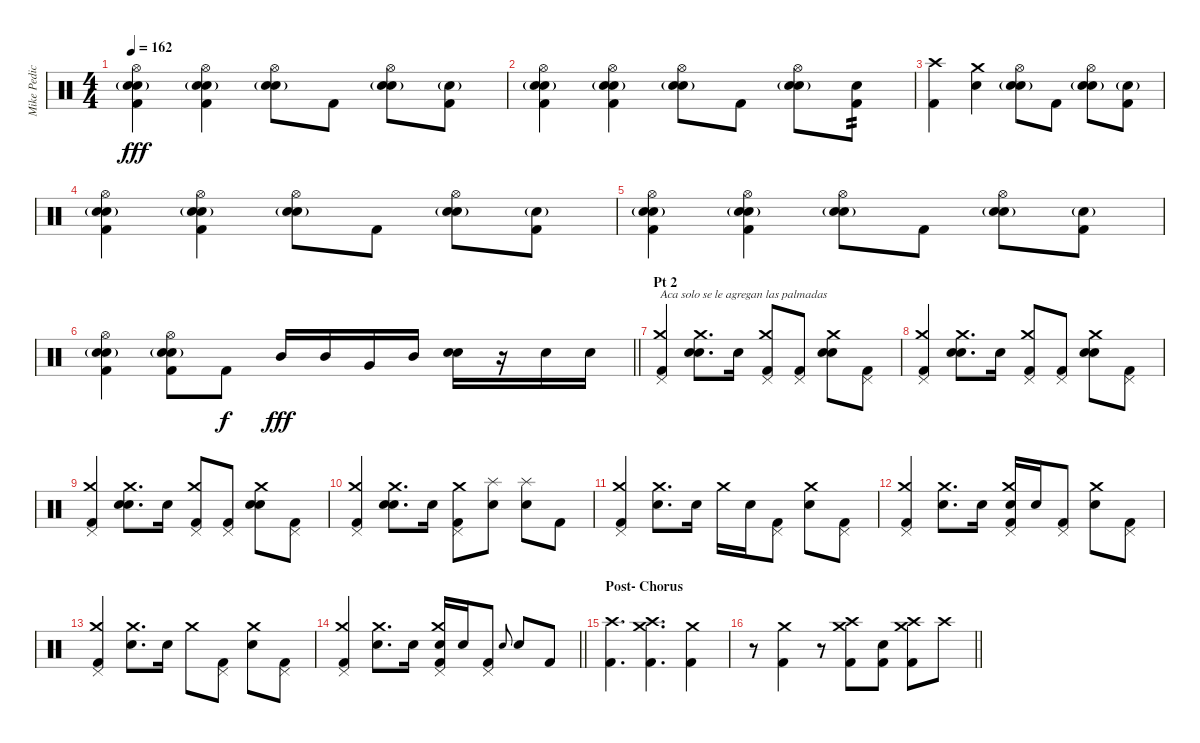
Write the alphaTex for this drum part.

\track ("Mike Pedicone [Drums]" "Mike Pedic") {instrument percussion}
\staff
\articulation defaults
\ts (4 4)
\tempo 162
\clef neutral
\ks c
("Hi-Hat (open)" "Electric Snare (hit)" "Hand Clap (hit)"{g} "Kick (hit) 2").4{dy fff} ("Hi-Hat (open)" "Electric Snare (hit)" "Hand Clap (hit)"{g} "Kick (hit) 2").4 ("Hi-Hat (open)" "Electric Snare (hit)" "Hand Clap (hit)"{g}).8 "Kick (hit) 2".8 ("Hi-Hat (open)" "Electric Snare (hit)" "Hand Clap (hit)"{g}).8 ("Electric Snare (hit)"{g} "Kick (hit) 2").8 |
("Hi-Hat (open)" "Electric Snare (hit)" "Hand Clap (hit)"{g} "Kick (hit) 2").4 ("Hi-Hat (open)" "Electric Snare (hit)" "Hand Clap (hit)"{g} "Kick (hit) 2").4 ("Hi-Hat (open)" "Electric Snare (hit)" "Hand Clap (hit)"{g}).8 "Kick (hit) 2".8 ("Hi-Hat (open)" "Electric Snare (hit)" "Hand Clap (hit)"{g}).8 ("Electric Snare (hit)" "Kick (hit) 2").8{tp 2} |
("Crash high (hit)" "Kick (hit) 2").4 ("Crash medium (hit)" "Electric Snare (hit)").4 ("Hi-Hat (open)" "Electric Snare (hit)" "Hand Clap (hit)"{g}).8 "Kick (hit) 2".8 ("Hi-Hat (open)" "Electric Snare (hit)" "Hand Clap (hit)"{g}).8 ("Electric Snare (hit)"{g} "Kick (hit) 2").8 |
("Hi-Hat (open)" "Electric Snare (hit)" "Hand Clap (hit)"{g} "Kick (hit) 2").4 ("Hi-Hat (open)" "Electric Snare (hit)" "Hand Clap (hit)"{g} "Kick (hit) 2").4 ("Hi-Hat (open)" "Electric Snare (hit)" "Hand Clap (hit)"{g}).8 "Kick (hit) 2".8 ("Hi-Hat (open)" "Electric Snare (hit)" "Hand Clap (hit)"{g}).8 ("Electric Snare (hit)"{g} "Kick (hit) 2").8 |
("Hi-Hat (open)" "Electric Snare (hit)" "Hand Clap (hit)"{g} "Kick (hit) 2").4 ("Hi-Hat (open)" "Electric Snare (hit)" "Hand Clap (hit)"{g} "Kick (hit) 2").4 ("Hi-Hat (open)" "Electric Snare (hit)" "Hand Clap (hit)"{g}).8 "Kick (hit) 2".8 ("Hi-Hat (open)" "Electric Snare (hit)" "Hand Clap (hit)"{g}).8 ("Electric Snare (hit)"{g} "Kick (hit) 2").8 |
\barLineRight lightlight
("Hi-Hat (open)" "Electric Snare (hit)" "Hand Clap (hit)"{g} "Kick (hit) 2").4 ("Hi-Hat (open)" "Electric Snare (hit)" "Hand Clap (hit)"{g} "Kick (hit) 2").8 "Kick (hit) 2".8{dy f} "Mid Tom (hit)".16{dy fff} "Mid Tom (hit)".16 "Very Low Tom (hit)".16 "Mid Tom (hit)".16 ("Hand Clap (hit)" "Electric Snare (hit)").16 r.16 "Electric Snare (hit)".16 "Electric Snare (hit)".16 |
\section ("" "Pt 2")
("Crash medium (hit)" "Pedal Hi-Hat (hit)" "Kick (hit) 2").4{txt "Aca solo se le agregan las palmadas"} ("Crash medium (hit)" "Electric Snare (hit)" "Hand Clap (hit)").8{d} "Electric Snare (hit)".16 ("Crash medium (hit)" "Pedal Hi-Hat (hit)" "Kick (hit) 2").8 ("Pedal Hi-Hat (hit)" "Kick (hit) 2").8 ("Crash medium (hit)" "Electric Snare (hit)" "Hand Clap (hit)").8 ("Pedal Hi-Hat (hit)" "Kick (hit) 2").8 |
("Crash medium (hit)" "Pedal Hi-Hat (hit)" "Kick (hit) 2").4 ("Crash medium (hit)" "Electric Snare (hit)" "Hand Clap (hit)").8{d} "Electric Snare (hit)".16 ("Crash medium (hit)" "Pedal Hi-Hat (hit)" "Kick (hit) 2").8 ("Pedal Hi-Hat (hit)" "Kick (hit) 2").8 ("Crash medium (hit)" "Electric Snare (hit)" "Hand Clap (hit)").8 ("Pedal Hi-Hat (hit)" "Kick (hit) 2").8 |
("Crash medium (hit)" "Pedal Hi-Hat (hit)" "Kick (hit) 2").4 ("Crash medium (hit)" "Electric Snare (hit)" "Hand Clap (hit)").8{d} "Electric Snare (hit)".16 ("Crash medium (hit)" "Pedal Hi-Hat (hit)" "Kick (hit) 2").8 ("Pedal Hi-Hat (hit)" "Kick (hit) 2").8 ("Crash medium (hit)" "Electric Snare (hit)" "Hand Clap (hit)").8 ("Pedal Hi-Hat (hit)" "Kick (hit) 2").8 |
("Crash medium (hit)" "Pedal Hi-Hat (hit)" "Kick (hit) 2").4 ("Crash medium (hit)" "Electric Snare (hit)" "Hand Clap (hit)").8{d} "Electric Snare (hit)".16 ("Crash medium (hit)" "Pedal Hi-Hat (hit)" "Kick (hit) 2").8 ("Splash (hit)" "Electric Snare (hit)").8 ("Splash (hit)" "Electric Snare (hit)").8 "Kick (hit) 2".8 |
("Crash medium (hit)" "Pedal Hi-Hat (hit)" "Kick (hit) 2").4 ("Crash medium (hit)" "Electric Snare (hit)").8{d} "Electric Snare (hit)".16 "Crash medium (hit)".16 "Electric Snare (hit)".16 ("Pedal Hi-Hat (hit)" "Kick (hit) 2").8 ("Crash medium (hit)" "Electric Snare (hit)").8 ("Pedal Hi-Hat (hit)" "Kick (hit) 2").8 |
("Crash medium (hit)" "Pedal Hi-Hat (hit)" "Kick (hit) 2").4 ("Crash medium (hit)" "Electric Snare (hit)").8{d} "Electric Snare (hit)".16 ("Crash medium (hit)" "Electric Snare (hit)" "Pedal Hi-Hat (hit)" "Kick (hit) 2").16 "Electric Snare (hit)".16 ("Pedal Hi-Hat (hit)" "Kick (hit) 2").8 ("Crash medium (hit)" "Electric Snare (hit)").8 ("Pedal Hi-Hat (hit)" "Kick (hit) 2").8 |
("Crash medium (hit)" "Pedal Hi-Hat (hit)" "Kick (hit) 2").4 ("Crash medium (hit)" "Electric Snare (hit)").8{d} "Electric Snare (hit)".16 "Crash medium (hit)".8 ("Pedal Hi-Hat (hit)" "Kick (hit) 2").8 ("Crash medium (hit)" "Electric Snare (hit)").8 ("Pedal Hi-Hat (hit)" "Kick (hit) 2").8 |
\barLineRight lightlight
("Crash medium (hit)" "Pedal Hi-Hat (hit)" "Kick (hit) 2").4 ("Crash medium (hit)" "Electric Snare (hit)").8{d} "Electric Snare (hit)".16 ("Crash medium (hit)" "Electric Snare (hit)" "Pedal Hi-Hat (hit)" "Kick (hit) 2").16 "Electric Snare (hit)".16 ("Pedal Hi-Hat (hit)" "Kick (hit) 2").8 "Electric Snare (hit)".8{gr onbeat} "Electric Snare (hit)".8 "Kick (hit) 2".8 |
\section ("" "Post- Chorus")
("Crash high (hit)" "Kick (hit) 2").4{d} ("Crash medium (hit)" "Crash high (hit)" "Kick (hit) 2").4{d} ("Crash medium (hit)" "Kick (hit) 2").4 |
\barLineRight lightlight
r.8 ("Crash medium (hit)" "Kick (hit) 2").4 r.8 ("Crash high (hit)" "Crash medium (hit)" "Kick (hit) 2").8 ("Electric Snare (hit)" "Kick (hit) 2").8 ("Crash high (hit)" "Crash medium (hit)" "Kick (hit) 2").8 "Crash high (hit)".8
